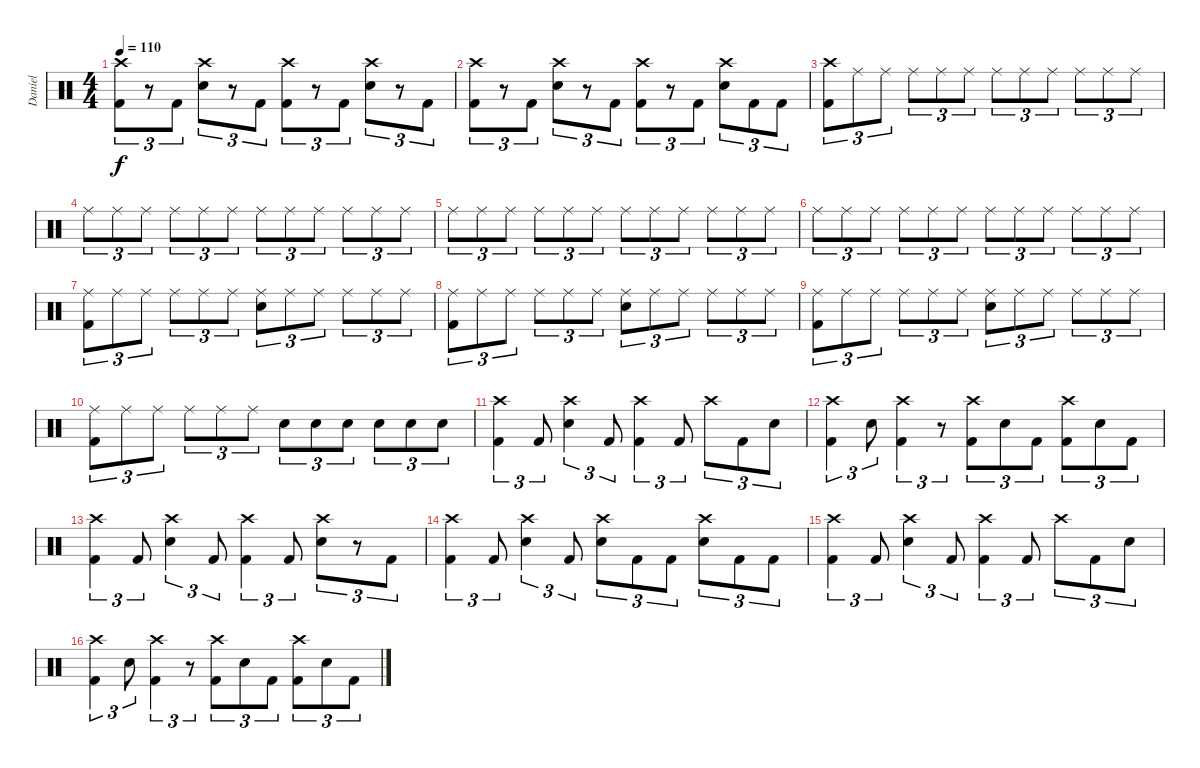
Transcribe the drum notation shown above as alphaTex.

\track ("Daniel" "Daniel") {instrument percussion}
\staff {score}
\articulation defaults
\ts (4 4)
\tempo 110
\clef neutral
\ks c
("Crash high (hit)" "Kick (hit) 2").8{tu (3 2) dy f} r.8{tu (3 2)} "Kick (hit) 2".8{tu (3 2)} ("Crash high (hit)" "Electric Snare (hit)").8{tu (3 2)} r.8{tu (3 2)} "Kick (hit) 2".8{tu (3 2)} ("Crash high (hit)" "Kick (hit) 2").8{tu (3 2)} r.8{tu (3 2)} "Kick (hit) 2".8{tu (3 2)} ("Crash high (hit)" "Electric Snare (hit)").8{tu (3 2)} r.8{tu (3 2)} "Kick (hit) 2".8{tu (3 2)} |
("Crash high (hit)" "Kick (hit) 2").8{tu (3 2)} r.8{tu (3 2)} "Kick (hit) 2".8{tu (3 2)} ("Crash high (hit)" "Electric Snare (hit)").8{tu (3 2)} r.8{tu (3 2)} "Kick (hit) 2".8{tu (3 2)} ("Crash high (hit)" "Kick (hit) 2").8{tu (3 2)} r.8{tu (3 2)} "Kick (hit) 2".8{tu (3 2)} ("Crash high (hit)" "Electric Snare (hit)").8{tu (3 2)} "Kick (hit) 2".8{tu (3 2)} "Kick (hit) 2".8{tu (3 2)} |
("Crash high (hit)" "Kick (hit) 2").8{tu (3 2)} "Ride (middle)".8{tu (3 2)} "Ride (middle)".8{tu (3 2)} "Ride (middle)".8{tu (3 2)} "Ride (middle)".8{tu (3 2)} "Ride (middle)".8{tu (3 2)} "Ride (middle)".8{tu (3 2)} "Ride (middle)".8{tu (3 2)} "Ride (middle)".8{tu (3 2)} "Ride (middle)".8{tu (3 2)} "Ride (middle)".8{tu (3 2)} "Ride (middle)".8{tu (3 2)} |
"Ride (middle)".8{tu (3 2)} "Ride (middle)".8{tu (3 2)} "Ride (middle)".8{tu (3 2)} "Ride (middle)".8{tu (3 2)} "Ride (middle)".8{tu (3 2)} "Ride (middle)".8{tu (3 2)} "Ride (middle)".8{tu (3 2)} "Ride (middle)".8{tu (3 2)} "Ride (middle)".8{tu (3 2)} "Ride (middle)".8{tu (3 2)} "Ride (middle)".8{tu (3 2)} "Ride (middle)".8{tu (3 2)} |
"Ride (middle)".8{tu (3 2)} "Ride (middle)".8{tu (3 2)} "Ride (middle)".8{tu (3 2)} "Ride (middle)".8{tu (3 2)} "Ride (middle)".8{tu (3 2)} "Ride (middle)".8{tu (3 2)} "Ride (middle)".8{tu (3 2)} "Ride (middle)".8{tu (3 2)} "Ride (middle)".8{tu (3 2)} "Ride (middle)".8{tu (3 2)} "Ride (middle)".8{tu (3 2)} "Ride (middle)".8{tu (3 2)} |
"Ride (middle)".8{tu (3 2)} "Ride (middle)".8{tu (3 2)} "Ride (middle)".8{tu (3 2)} "Ride (middle)".8{tu (3 2)} "Ride (middle)".8{tu (3 2)} "Ride (middle)".8{tu (3 2)} "Ride (middle)".8{tu (3 2)} "Ride (middle)".8{tu (3 2)} "Ride (middle)".8{tu (3 2)} "Ride (middle)".8{tu (3 2)} "Ride (middle)".8{tu (3 2)} "Ride (middle)".8{tu (3 2)} |
("Kick (hit) 2" "Ride (middle)").8{tu (3 2)} "Ride (middle)".8{tu (3 2)} "Ride (middle)".8{tu (3 2)} "Ride (middle)".8{tu (3 2)} "Ride (middle)".8{tu (3 2)} "Ride (middle)".8{tu (3 2)} ("Electric Snare (hit)" "Ride (middle)").8{tu (3 2)} "Ride (middle)".8{tu (3 2)} "Ride (middle)".8{tu (3 2)} "Ride (middle)".8{tu (3 2)} "Ride (middle)".8{tu (3 2)} "Ride (middle)".8{tu (3 2)} |
("Kick (hit) 2" "Ride (middle)").8{tu (3 2)} "Ride (middle)".8{tu (3 2)} "Ride (middle)".8{tu (3 2)} "Ride (middle)".8{tu (3 2)} "Ride (middle)".8{tu (3 2)} "Ride (middle)".8{tu (3 2)} ("Electric Snare (hit)" "Ride (middle)").8{tu (3 2)} "Ride (middle)".8{tu (3 2)} "Ride (middle)".8{tu (3 2)} "Ride (middle)".8{tu (3 2)} "Ride (middle)".8{tu (3 2)} "Ride (middle)".8{tu (3 2)} |
("Kick (hit) 2" "Ride (middle)").8{tu (3 2)} "Ride (middle)".8{tu (3 2)} "Ride (middle)".8{tu (3 2)} "Ride (middle)".8{tu (3 2)} "Ride (middle)".8{tu (3 2)} "Ride (middle)".8{tu (3 2)} ("Electric Snare (hit)" "Ride (middle)").8{tu (3 2)} "Ride (middle)".8{tu (3 2)} "Ride (middle)".8{tu (3 2)} "Ride (middle)".8{tu (3 2)} "Ride (middle)".8{tu (3 2)} "Ride (middle)".8{tu (3 2)} |
("Kick (hit) 2" "Ride (middle)").8{tu (3 2)} "Ride (middle)".8{tu (3 2)} "Ride (middle)".8{tu (3 2)} "Ride (middle)".8{tu (3 2)} "Ride (middle)".8{tu (3 2)} "Ride (middle)".8{tu (3 2)} "Electric Snare (hit)".8{tu (3 2)} "Electric Snare (hit)".8{tu (3 2)} "Electric Snare (hit)".8{tu (3 2)} "Electric Snare (hit)".8{tu (3 2)} "Electric Snare (hit)".8{tu (3 2)} "Electric Snare (hit)".8{tu (3 2)} |
("Crash high (hit)" "Kick (hit) 2").4{tu (3 2)} "Kick (hit) 2".8{tu (3 2)} ("Crash high (hit)" "Electric Snare (hit)").4{tu (3 2)} "Kick (hit) 2".8{tu (3 2)} ("Crash high (hit)" "Kick (hit) 2").4{tu (3 2)} "Kick (hit) 2".8{tu (3 2)} "Crash high (hit)".8{tu (3 2)} "Kick (hit) 2".8{tu (3 2)} "Electric Snare (hit)".8{tu (3 2)} |
("Crash high (hit)" "Kick (hit) 2").4{tu (3 2)} "Electric Snare (hit)".8{tu (3 2)} ("Crash high (hit)" "Kick (hit) 2").4{tu (3 2)} r.8{tu (3 2)} ("Crash high (hit)" "Kick (hit) 2").8{tu (3 2)} "Electric Snare (hit)".8{tu (3 2)} "Kick (hit) 2".8{tu (3 2)} ("Crash high (hit)" "Kick (hit) 2").8{tu (3 2)} "Electric Snare (hit)".8{tu (3 2)} "Kick (hit) 2".8{tu (3 2)} |
("Crash high (hit)" "Kick (hit) 2").4{tu (3 2)} "Kick (hit) 2".8{tu (3 2)} ("Crash high (hit)" "Electric Snare (hit)").4{tu (3 2)} "Kick (hit) 2".8{tu (3 2)} ("Crash high (hit)" "Kick (hit) 2").4{tu (3 2)} "Kick (hit) 2".8{tu (3 2)} ("Crash high (hit)" "Electric Snare (hit)").8{tu (3 2)} r.8{tu (3 2)} "Kick (hit) 2".8{tu (3 2)} |
("Crash high (hit)" "Kick (hit) 2").4{tu (3 2)} "Kick (hit) 2".8{tu (3 2)} ("Crash high (hit)" "Electric Snare (hit)").4{tu (3 2)} "Kick (hit) 2".8{tu (3 2)} ("Crash high (hit)" "Electric Snare (hit)").8{tu (3 2)} "Kick (hit) 2".8{tu (3 2)} "Kick (hit) 2".8{tu (3 2)} ("Crash high (hit)" "Electric Snare (hit)").8{tu (3 2)} "Kick (hit) 2".8{tu (3 2)} "Kick (hit) 2".8{tu (3 2)} |
("Crash high (hit)" "Kick (hit) 2").4{tu (3 2)} "Kick (hit) 2".8{tu (3 2)} ("Crash high (hit)" "Electric Snare (hit)").4{tu (3 2)} "Kick (hit) 2".8{tu (3 2)} ("Crash high (hit)" "Kick (hit) 2").4{tu (3 2)} "Kick (hit) 2".8{tu (3 2)} "Crash high (hit)".8{tu (3 2)} "Kick (hit) 2".8{tu (3 2)} "Electric Snare (hit)".8{tu (3 2)} |
("Crash high (hit)" "Kick (hit) 2").4{tu (3 2)} "Electric Snare (hit)".8{tu (3 2)} ("Crash high (hit)" "Kick (hit) 2").4{tu (3 2)} r.8{tu (3 2)} ("Crash high (hit)" "Kick (hit) 2").8{tu (3 2)} "Electric Snare (hit)".8{tu (3 2)} "Kick (hit) 2".8{tu (3 2)} ("Crash high (hit)" "Kick (hit) 2").8{tu (3 2)} "Electric Snare (hit)".8{tu (3 2)} "Kick (hit) 2".8{tu (3 2)}
